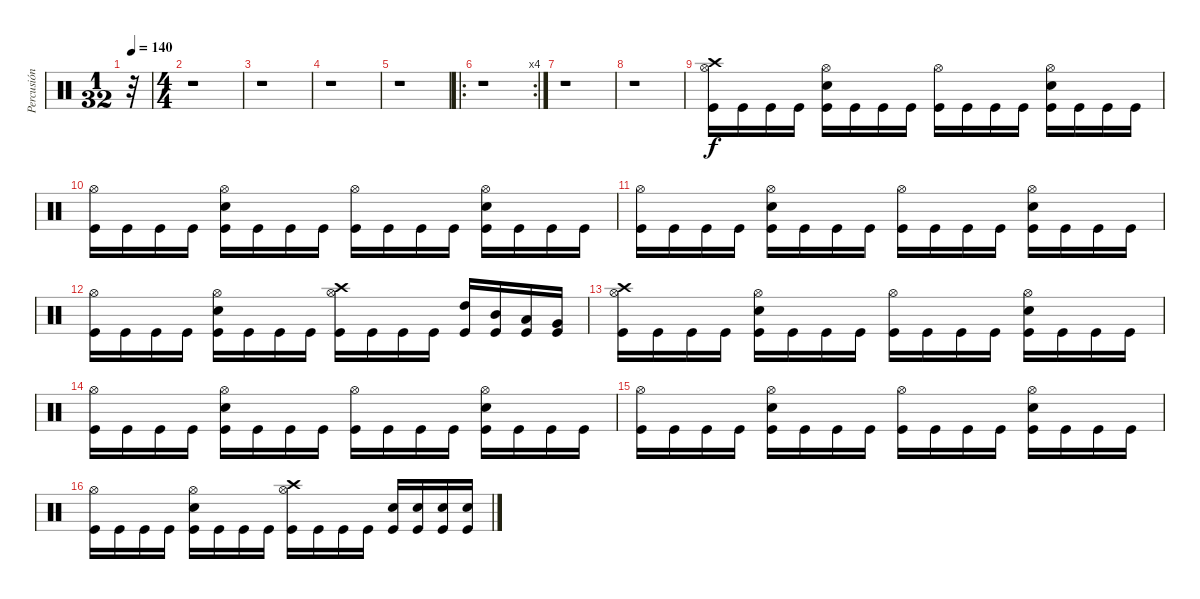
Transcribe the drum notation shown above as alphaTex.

\track ("Percusión" "Percusión") {instrument percussion}
\staff {score}
\articulation defaults
\ts (1 32)
\tempo 140
\clef neutral
\ks c
r.32{dy f} |
\ts (4 4)
r.1 |
r.1 |
r.1 |
r.1 |
\ro
\rc 4
r.1 |
r.1 |
r.1 |
("Crash high (hit)" "Hi-Hat (open)" "Kick (hit)").16 "Kick (hit)".16 "Kick (hit)".16 "Kick (hit)".16 ("Snare (hit) 2" "Hi-Hat (open)" "Kick (hit)").16 "Kick (hit)".16 "Kick (hit)".16 "Kick (hit)".16 ("Hi-Hat (open)" "Kick (hit)").16 "Kick (hit)".16 "Kick (hit)".16 "Kick (hit)".16 ("Snare (hit) 2" "Hi-Hat (open)" "Kick (hit)").16 "Kick (hit)".16 "Kick (hit)".16 "Kick (hit)".16 |
("Hi-Hat (open)" "Kick (hit)").16 "Kick (hit)".16 "Kick (hit)".16 "Kick (hit)".16 ("Snare (hit) 2" "Hi-Hat (open)" "Kick (hit)").16 "Kick (hit)".16 "Kick (hit)".16 "Kick (hit)".16 ("Hi-Hat (open)" "Kick (hit)").16 "Kick (hit)".16 "Kick (hit)".16 "Kick (hit)".16 ("Snare (hit) 2" "Hi-Hat (open)" "Kick (hit)").16 "Kick (hit)".16 "Kick (hit)".16 "Kick (hit)".16 |
("Hi-Hat (open)" "Kick (hit)").16 "Kick (hit)".16 "Kick (hit)".16 "Kick (hit)".16 ("Snare (hit) 2" "Hi-Hat (open)" "Kick (hit)").16 "Kick (hit)".16 "Kick (hit)".16 "Kick (hit)".16 ("Hi-Hat (open)" "Kick (hit)").16 "Kick (hit)".16 "Kick (hit)".16 "Kick (hit)".16 ("Snare (hit) 2" "Hi-Hat (open)" "Kick (hit)").16 "Kick (hit)".16 "Kick (hit)".16 "Kick (hit)".16 |
("Hi-Hat (open)" "Kick (hit)").16 "Kick (hit)".16 "Kick (hit)".16 "Kick (hit)".16 ("Snare (hit) 2" "Hi-Hat (open)" "Kick (hit)").16 "Kick (hit)".16 "Kick (hit)".16 "Kick (hit)".16 ("Crash high (hit)" "Hi-Hat (open)" "Kick (hit)").16 "Kick (hit)".16 "Kick (hit)".16 "Kick (hit)".16 ("High Tom (hit)" "Kick (hit)").16 ("Mid Tom (hit)" "Kick (hit)").16 ("Low Tom (hit)" "Kick (hit)").16 ("Very Low Tom (hit)" "Kick (hit)").16 |
("Crash high (hit)" "Hi-Hat (open)" "Kick (hit)").16 "Kick (hit)".16 "Kick (hit)".16 "Kick (hit)".16 ("Snare (hit) 2" "Hi-Hat (open)" "Kick (hit)").16 "Kick (hit)".16 "Kick (hit)".16 "Kick (hit)".16 ("Hi-Hat (open)" "Kick (hit)").16 "Kick (hit)".16 "Kick (hit)".16 "Kick (hit)".16 ("Snare (hit) 2" "Hi-Hat (open)" "Kick (hit)").16 "Kick (hit)".16 "Kick (hit)".16 "Kick (hit)".16 |
("Hi-Hat (open)" "Kick (hit)").16 "Kick (hit)".16 "Kick (hit)".16 "Kick (hit)".16 ("Snare (hit) 2" "Hi-Hat (open)" "Kick (hit)").16 "Kick (hit)".16 "Kick (hit)".16 "Kick (hit)".16 ("Hi-Hat (open)" "Kick (hit)").16 "Kick (hit)".16 "Kick (hit)".16 "Kick (hit)".16 ("Snare (hit) 2" "Hi-Hat (open)" "Kick (hit)").16 "Kick (hit)".16 "Kick (hit)".16 "Kick (hit)".16 |
("Hi-Hat (open)" "Kick (hit)").16 "Kick (hit)".16 "Kick (hit)".16 "Kick (hit)".16 ("Snare (hit) 2" "Hi-Hat (open)" "Kick (hit)").16 "Kick (hit)".16 "Kick (hit)".16 "Kick (hit)".16 ("Hi-Hat (open)" "Kick (hit)").16 "Kick (hit)".16 "Kick (hit)".16 "Kick (hit)".16 ("Snare (hit) 2" "Hi-Hat (open)" "Kick (hit)").16 "Kick (hit)".16 "Kick (hit)".16 "Kick (hit)".16 |
("Hi-Hat (open)" "Kick (hit)").16 "Kick (hit)".16 "Kick (hit)".16 "Kick (hit)".16 ("Snare (hit) 2" "Hi-Hat (open)" "Kick (hit)").16 "Kick (hit)".16 "Kick (hit)".16 "Kick (hit)".16 ("Crash high (hit)" "Hi-Hat (open)" "Kick (hit)").16 "Kick (hit)".16 "Kick (hit)".16 "Kick (hit)".16 ("Snare (hit) 2" "Kick (hit)").16 ("Snare (hit) 2" "Kick (hit)").16 ("Snare (hit) 2" "Kick (hit)").16 ("Snare (hit) 2" "Kick (hit)").16
